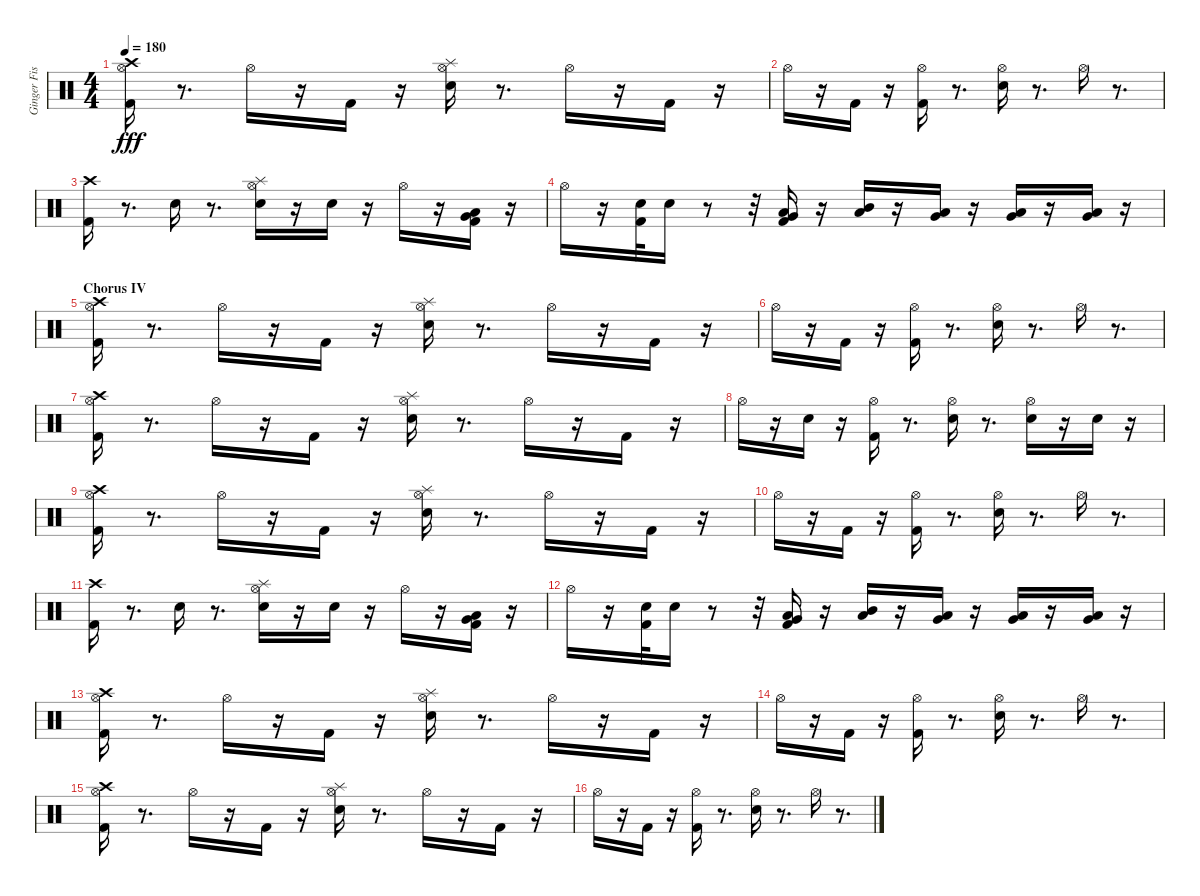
\track ("Ginger Fish" "Ginger Fis") {instrument percussion}
\staff {score}
\articulation defaults
\ts (4 4)
\tempo 180
\clef neutral
\ks c
("Crash high (hit)" "Kick (hit) 2" "Hi-Hat (open)").16{dy fff} r.8{d} "Hi-Hat (open)".16 r.16 "Kick (hit) 2".16 r.16 ("Splash (hit)" "Electric Snare (hit)" "Hi-Hat (open)").16 r.8{d} "Hi-Hat (open)".16 r.16 "Kick (hit) 2".16 r.16 |
"Hi-Hat (open)".16 r.16 "Kick (hit) 2".16 r.16 ("Hi-Hat (open)" "Kick (hit) 2").16 r.8{d} ("Hi-Hat (open)" "Electric Snare (hit)").16 r.8{d} "Hi-Hat (open)".16 r.8{d} |
("Crash high (hit)" "Kick (hit) 2").16 r.8{d} "Electric Snare (hit)".16 r.8{d} ("Splash (hit)" "Hi-Hat (open)" "Electric Snare (hit)").16 r.16 "Electric Snare (hit)".16 r.16 "Hi-Hat (open)".16 r.16 ("Very Low Tom (hit)" "Low Floor Tom (hit)" "Kick (hit) 2").16 r.16 |
"Hi-Hat (open)".16 r.16 ("Electric Snare (hit)" "Kick (hit) 2").32 "Electric Snare (hit)".16 r.8 r.32 ("Low Tom (hit)" "Very Low Tom (hit)" "Kick (hit) 2").16 r.16 ("Low Tom (hit)" "Mid Tom (hit)").16 r.16 ("Very Low Tom (hit)" "Low Tom (hit)").16 r.16 ("Low Tom (hit)" "Very Low Tom (hit)").16 r.16 ("Very Low Tom (hit)" "Low Floor Tom (hit)").16 r.16 |
\section ("" "Chorus IV")
("Crash high (hit)" "Kick (hit) 2" "Hi-Hat (open)").16 r.8{d} "Hi-Hat (open)".16 r.16 "Kick (hit) 2".16 r.16 ("Electric Snare (hit)" "Hi-Hat (open)" "Splash (hit)").16 r.8{d} "Hi-Hat (open)".16 r.16 "Kick (hit) 2".16 r.16 |
"Hi-Hat (open)".16 r.16 "Kick (hit) 2".16 r.16 ("Hi-Hat (open)" "Kick (hit) 2").16 r.8{d} ("Hi-Hat (open)" "Electric Snare (hit)").16 r.8{d} "Hi-Hat (open)".16 r.8{d} |
("Crash high (hit)" "Kick (hit) 2" "Hi-Hat (open)").16 r.8{d} "Hi-Hat (open)".16 r.16 "Kick (hit) 2".16 r.16 ("Splash (hit)" "Electric Snare (hit)" "Hi-Hat (open)").16 r.8{d} "Hi-Hat (open)".16 r.16 "Kick (hit) 2".16 r.16 |
"Hi-Hat (open)".16 r.16 "Electric Snare (hit)".16 r.16 ("Hi-Hat (open)" "Kick (hit) 2").16 r.8{d} ("Hi-Hat (open)" "Electric Snare (hit)").16 r.8{d} ("Hi-Hat (open)" "Electric Snare (hit)").16 r.16 "Electric Snare (hit)".16 r.16 |
("Crash high (hit)" "Kick (hit) 2" "Hi-Hat (open)").16 r.8{d} "Hi-Hat (open)".16 r.16 "Kick (hit) 2".16 r.16 ("Splash (hit)" "Electric Snare (hit)" "Hi-Hat (open)").16 r.8{d} "Hi-Hat (open)".16 r.16 "Kick (hit) 2".16 r.16 |
"Hi-Hat (open)".16 r.16 "Kick (hit) 2".16 r.16 ("Hi-Hat (open)" "Kick (hit) 2").16 r.8{d} ("Hi-Hat (open)" "Electric Snare (hit)").16 r.8{d} "Hi-Hat (open)".16 r.8{d} |
("Crash high (hit)" "Kick (hit) 2").16 r.8{d} "Electric Snare (hit)".16 r.8{d} ("Splash (hit)" "Hi-Hat (open)" "Electric Snare (hit)").16 r.16 "Electric Snare (hit)".16 r.16 "Hi-Hat (open)".16 r.16 ("Very Low Tom (hit)" "Low Floor Tom (hit)" "Kick (hit) 2").16 r.16 |
"Hi-Hat (open)".16 r.16 ("Electric Snare (hit)" "Kick (hit) 2").32 "Electric Snare (hit)".16 r.8 r.32 ("Low Tom (hit)" "Very Low Tom (hit)" "Kick (hit) 2").16 r.16 ("Low Tom (hit)" "Mid Tom (hit)").16 r.16 ("Very Low Tom (hit)" "Low Tom (hit)").16 r.16 ("Low Tom (hit)" "Very Low Tom (hit)").16 r.16 ("Very Low Tom (hit)" "Low Floor Tom (hit)").16 r.16 |
("Crash high (hit)" "Kick (hit) 2" "Hi-Hat (open)").16 r.8{d} "Hi-Hat (open)".16 r.16 "Kick (hit) 2".16 r.16 ("Splash (hit)" "Electric Snare (hit)" "Hi-Hat (open)").16 r.8{d} "Hi-Hat (open)".16 r.16 "Kick (hit) 2".16 r.16 |
"Hi-Hat (open)".16 r.16 "Kick (hit) 2".16 r.16 ("Hi-Hat (open)" "Kick (hit) 2").16 r.8{d} ("Hi-Hat (open)" "Electric Snare (hit)").16 r.8{d} "Hi-Hat (open)".16 r.8{d} |
("Crash high (hit)" "Kick (hit) 2" "Hi-Hat (open)").16 r.8{d} "Hi-Hat (open)".16 r.16 "Kick (hit) 2".16 r.16 ("Splash (hit)" "Electric Snare (hit)" "Hi-Hat (open)").16 r.8{d} "Hi-Hat (open)".16 r.16 "Kick (hit) 2".16 r.16 |
"Hi-Hat (open)".16 r.16 "Kick (hit) 2".16 r.16 ("Hi-Hat (open)" "Kick (hit) 2").16 r.8{d} ("Hi-Hat (open)" "Electric Snare (hit)").16 r.8{d} "Hi-Hat (open)".16 r.8{d}
